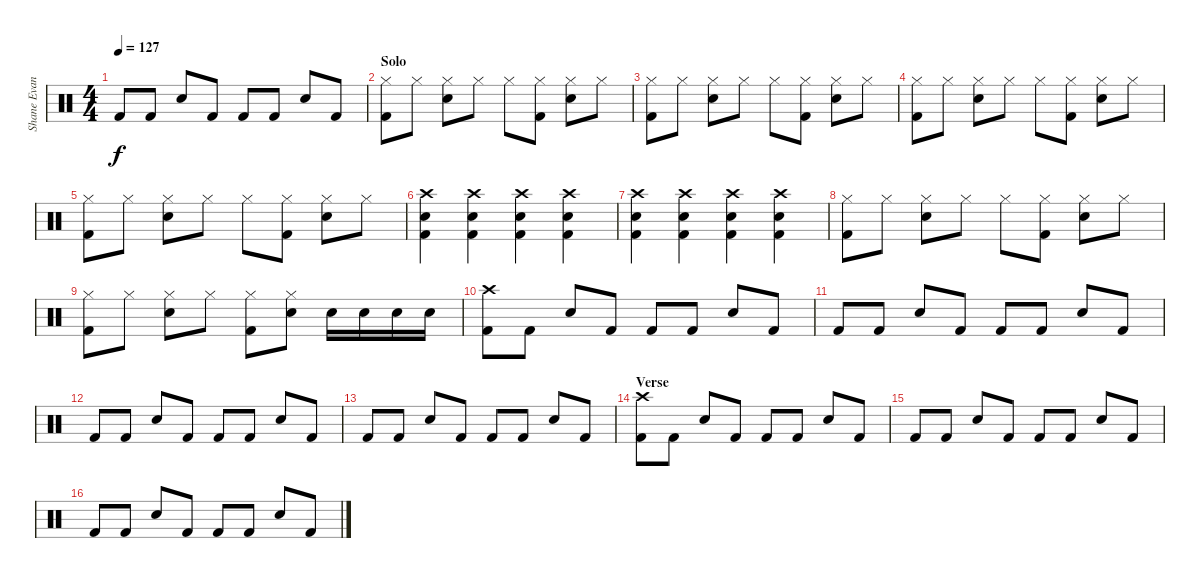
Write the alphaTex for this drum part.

\track ("Shane Evans" "Shane Evan") {instrument percussion}
\staff {score}
\articulation defaults
\ts (4 4)
\tempo 127
\clef neutral
\ks c "Kick (hit) 2".8{dy f} "Kick (hit) 2".8 "Snare (hit) 2".8 "Kick (hit) 2".8 "Kick (hit) 2".8 "Kick (hit) 2".8 "Snare (hit) 2".8 "Kick (hit) 2".8
|
\section ("" "Solo")
("Hi-Hat (closed)" "Kick (hit) 2").8 "Hi-Hat (closed)".8 ("Hi-Hat (closed)" "Snare (hit) 2").8 "Hi-Hat (closed)".8 "Hi-Hat (closed)".8 ("Hi-Hat (closed)" "Kick (hit) 2").8 ("Hi-Hat (closed)" "Snare (hit) 2").8 "Hi-Hat (closed)".8 |
("Hi-Hat (closed)" "Kick (hit) 2").8 "Hi-Hat (closed)".8 ("Hi-Hat (closed)" "Snare (hit) 2").8 "Hi-Hat (closed)".8 "Hi-Hat (closed)".8 ("Hi-Hat (closed)" "Kick (hit) 2").8 ("Hi-Hat (closed)" "Snare (hit) 2").8 "Hi-Hat (closed)".8 |
("Hi-Hat (closed)" "Kick (hit) 2").8 "Hi-Hat (closed)".8 ("Hi-Hat (closed)" "Snare (hit) 2").8 "Hi-Hat (closed)".8 "Hi-Hat (closed)".8 ("Hi-Hat (closed)" "Kick (hit) 2").8 ("Hi-Hat (closed)" "Snare (hit) 2").8 "Hi-Hat (closed)".8 |
("Hi-Hat (closed)" "Kick (hit) 2").8 "Hi-Hat (closed)".8 ("Hi-Hat (closed)" "Snare (hit) 2").8 "Hi-Hat (closed)".8 "Hi-Hat (closed)".8 ("Hi-Hat (closed)" "Kick (hit) 2").8 ("Hi-Hat (closed)" "Snare (hit) 2").8 "Hi-Hat (closed)".8 |
("Crash high (hit)" "Snare (hit) 2" "Kick (hit) 2").4 ("Crash high (hit)" "Snare (hit) 2" "Kick (hit) 2").4 ("Crash high (hit)" "Snare (hit) 2" "Kick (hit) 2").4 ("Crash high (hit)" "Snare (hit) 2" "Kick (hit) 2").4 |
("Crash high (hit)" "Snare (hit) 2" "Kick (hit) 2").4 ("Crash high (hit)" "Snare (hit) 2" "Kick (hit) 2").4 ("Crash high (hit)" "Snare (hit) 2" "Kick (hit) 2").4 ("Crash high (hit)" "Snare (hit) 2" "Kick (hit) 2").4 |
("Hi-Hat (closed)" "Kick (hit) 2").8 "Hi-Hat (closed)".8 ("Hi-Hat (closed)" "Snare (hit) 2").8 "Hi-Hat (closed)".8 "Hi-Hat (closed)".8 ("Hi-Hat (closed)" "Kick (hit) 2").8 ("Hi-Hat (closed)" "Snare (hit) 2").8 "Hi-Hat (closed)".8 |
("Hi-Hat (closed)" "Kick (hit) 2").8 "Hi-Hat (closed)".8 ("Hi-Hat (closed)" "Snare (hit) 2").8 "Hi-Hat (closed)".8 ("Hi-Hat (closed)" "Kick (hit) 2").8 ("Hi-Hat (closed)" "Snare (hit) 2").8 "Snare (hit) 2".16 "Snare (hit) 2".16 "Snare (hit) 2".16 "Snare (hit) 2".16 |
("Crash high (hit)" "Kick (hit) 2").8 "Kick (hit) 2".8 "Snare (hit) 2".8 "Kick (hit) 2".8 "Kick (hit) 2".8 "Kick (hit) 2".8 "Snare (hit) 2".8 "Kick (hit) 2".8 |
"Kick (hit) 2".8 "Kick (hit) 2".8 "Snare (hit) 2".8 "Kick (hit) 2".8 "Kick (hit) 2".8 "Kick (hit) 2".8 "Snare (hit) 2".8 "Kick (hit) 2".8 |
"Kick (hit) 2".8 "Kick (hit) 2".8 "Snare (hit) 2".8 "Kick (hit) 2".8 "Kick (hit) 2".8 "Kick (hit) 2".8 "Snare (hit) 2".8 "Kick (hit) 2".8 |
"Kick (hit) 2".8 "Kick (hit) 2".8 "Snare (hit) 2".8 "Kick (hit) 2".8 "Kick (hit) 2".8 "Kick (hit) 2".8 "Snare (hit) 2".8 "Kick (hit) 2".8 |
\section ("" "Verse")
("Crash high (hit)" "Kick (hit) 2").8 "Kick (hit) 2".8 "Snare (hit) 2".8 "Kick (hit) 2".8 "Kick (hit) 2".8 "Kick (hit) 2".8 "Snare (hit) 2".8 "Kick (hit) 2".8 |
"Kick (hit) 2".8 "Kick (hit) 2".8 "Snare (hit) 2".8 "Kick (hit) 2".8 "Kick (hit) 2".8 "Kick (hit) 2".8 "Snare (hit) 2".8 "Kick (hit) 2".8 |
"Kick (hit) 2".8 "Kick (hit) 2".8 "Snare (hit) 2".8 "Kick (hit) 2".8 "Kick (hit) 2".8 "Kick (hit) 2".8 "Snare (hit) 2".8 "Kick (hit) 2".8
